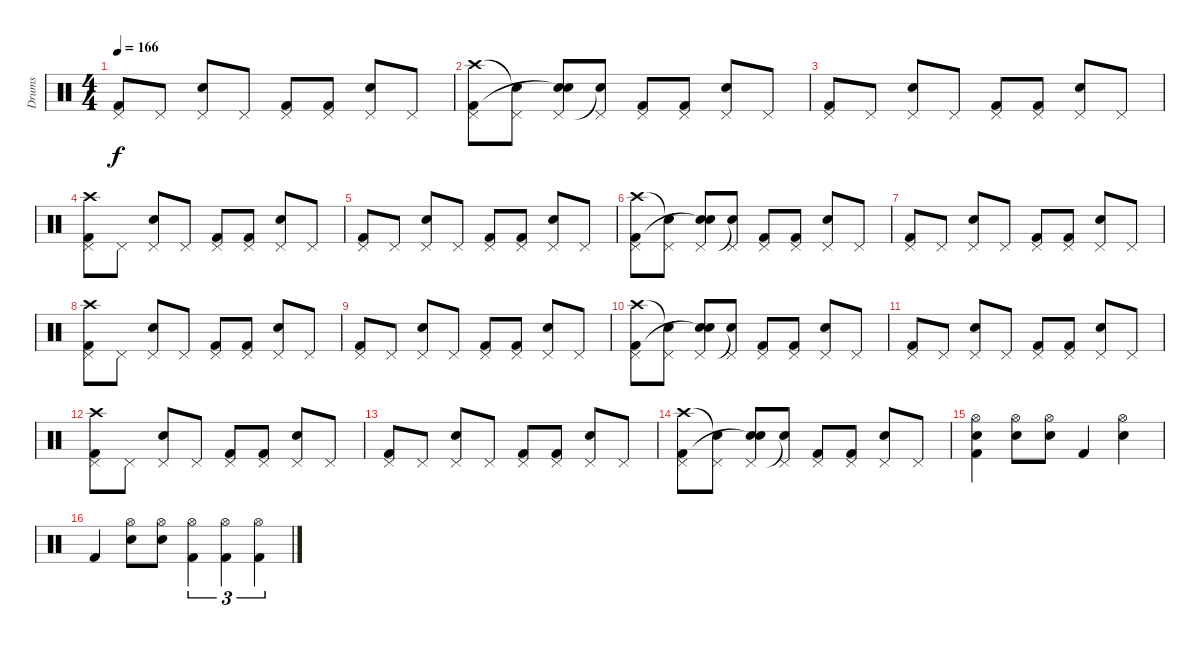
\track ("Drums" "Drums") {instrument percussion}
\staff {score}
\articulation defaults
\ts (4 4)
\tempo 166
\clef neutral
\ks c
("Pedal Hi-Hat (hit)" "Kick (hit) 2").8{dy f} "Pedal Hi-Hat (hit)".8 ("Electric Snare (hit)" "Pedal Hi-Hat (hit)").8 "Pedal Hi-Hat (hit)".8 ("Pedal Hi-Hat (hit)" "Kick (hit) 2").8 ("Pedal Hi-Hat (hit)" "Kick (hit) 2").8 ("Electric Snare (hit)" "Pedal Hi-Hat (hit)").8 "Pedal Hi-Hat (hit)".8 |
("Pedal Hi-Hat (hit)" "Crash high (hit)" "Kick (hit) 2").8 ("Pedal Hi-Hat (hit)" "Snare (hit)"{t}).8 ("Electric Snare (hit)" "Pedal Hi-Hat (hit)" "Snare (hit)"{t}).8 ("Pedal Hi-Hat (hit)" "Snare (hit)"{t}).8 ("Pedal Hi-Hat (hit)" "Kick (hit) 2").8 ("Pedal Hi-Hat (hit)" "Kick (hit) 2").8 ("Electric Snare (hit)" "Pedal Hi-Hat (hit)").8 "Pedal Hi-Hat (hit)".8 |
("Pedal Hi-Hat (hit)" "Kick (hit) 2").8 "Pedal Hi-Hat (hit)".8 ("Electric Snare (hit)" "Pedal Hi-Hat (hit)").8 "Pedal Hi-Hat (hit)".8 ("Pedal Hi-Hat (hit)" "Kick (hit) 2").8 ("Pedal Hi-Hat (hit)" "Kick (hit) 2").8 ("Electric Snare (hit)" "Pedal Hi-Hat (hit)").8 "Pedal Hi-Hat (hit)".8 |
("Pedal Hi-Hat (hit)" "Crash high (hit)" "Kick (hit) 2").8 "Pedal Hi-Hat (hit)".8 ("Electric Snare (hit)" "Pedal Hi-Hat (hit)").8 "Pedal Hi-Hat (hit)".8 ("Pedal Hi-Hat (hit)" "Kick (hit) 2").8 ("Pedal Hi-Hat (hit)" "Kick (hit) 2").8 ("Electric Snare (hit)" "Pedal Hi-Hat (hit)").8 "Pedal Hi-Hat (hit)".8 |
("Pedal Hi-Hat (hit)" "Kick (hit) 2").8 "Pedal Hi-Hat (hit)".8 ("Electric Snare (hit)" "Pedal Hi-Hat (hit)").8 "Pedal Hi-Hat (hit)".8 ("Pedal Hi-Hat (hit)" "Kick (hit) 2").8 ("Pedal Hi-Hat (hit)" "Kick (hit) 2").8 ("Electric Snare (hit)" "Pedal Hi-Hat (hit)").8 "Pedal Hi-Hat (hit)".8 |
("Pedal Hi-Hat (hit)" "Crash high (hit)" "Kick (hit) 2").8 ("Pedal Hi-Hat (hit)" "Snare (hit)"{t}).8 ("Electric Snare (hit)" "Pedal Hi-Hat (hit)" "Snare (hit)"{t}).8 ("Pedal Hi-Hat (hit)" "Snare (hit)"{t}).8 ("Pedal Hi-Hat (hit)" "Kick (hit) 2").8 ("Pedal Hi-Hat (hit)" "Kick (hit) 2").8 ("Electric Snare (hit)" "Pedal Hi-Hat (hit)").8 "Pedal Hi-Hat (hit)".8 |
("Pedal Hi-Hat (hit)" "Kick (hit) 2").8 "Pedal Hi-Hat (hit)".8 ("Electric Snare (hit)" "Pedal Hi-Hat (hit)").8 "Pedal Hi-Hat (hit)".8 ("Pedal Hi-Hat (hit)" "Kick (hit) 2").8 ("Pedal Hi-Hat (hit)" "Kick (hit) 2").8 ("Electric Snare (hit)" "Pedal Hi-Hat (hit)").8 "Pedal Hi-Hat (hit)".8 |
("Pedal Hi-Hat (hit)" "Crash high (hit)" "Kick (hit) 2").8 "Pedal Hi-Hat (hit)".8 ("Electric Snare (hit)" "Pedal Hi-Hat (hit)").8 "Pedal Hi-Hat (hit)".8 ("Pedal Hi-Hat (hit)" "Kick (hit) 2").8 ("Pedal Hi-Hat (hit)" "Kick (hit) 2").8 ("Electric Snare (hit)" "Pedal Hi-Hat (hit)").8 "Pedal Hi-Hat (hit)".8 |
("Pedal Hi-Hat (hit)" "Kick (hit) 2").8 "Pedal Hi-Hat (hit)".8 ("Electric Snare (hit)" "Pedal Hi-Hat (hit)").8 "Pedal Hi-Hat (hit)".8 ("Pedal Hi-Hat (hit)" "Kick (hit) 2").8 ("Pedal Hi-Hat (hit)" "Kick (hit) 2").8 ("Electric Snare (hit)" "Pedal Hi-Hat (hit)").8 "Pedal Hi-Hat (hit)".8 |
("Pedal Hi-Hat (hit)" "Crash high (hit)" "Kick (hit) 2").8 ("Pedal Hi-Hat (hit)" "Snare (hit)"{t}).8 ("Electric Snare (hit)" "Pedal Hi-Hat (hit)" "Snare (hit)"{t}).8 ("Pedal Hi-Hat (hit)" "Snare (hit)"{t}).8 ("Pedal Hi-Hat (hit)" "Kick (hit) 2").8 ("Pedal Hi-Hat (hit)" "Kick (hit) 2").8 ("Electric Snare (hit)" "Pedal Hi-Hat (hit)").8 "Pedal Hi-Hat (hit)".8 |
("Pedal Hi-Hat (hit)" "Kick (hit) 2").8 "Pedal Hi-Hat (hit)".8 ("Electric Snare (hit)" "Pedal Hi-Hat (hit)").8 "Pedal Hi-Hat (hit)".8 ("Pedal Hi-Hat (hit)" "Kick (hit) 2").8 ("Pedal Hi-Hat (hit)" "Kick (hit) 2").8 ("Electric Snare (hit)" "Pedal Hi-Hat (hit)").8 "Pedal Hi-Hat (hit)".8 |
("Pedal Hi-Hat (hit)" "Crash high (hit)" "Kick (hit) 2").8 "Pedal Hi-Hat (hit)".8 ("Electric Snare (hit)" "Pedal Hi-Hat (hit)").8 "Pedal Hi-Hat (hit)".8 ("Pedal Hi-Hat (hit)" "Kick (hit) 2").8 ("Pedal Hi-Hat (hit)" "Kick (hit) 2").8 ("Electric Snare (hit)" "Pedal Hi-Hat (hit)").8 "Pedal Hi-Hat (hit)".8 |
("Pedal Hi-Hat (hit)" "Kick (hit) 2").8 "Pedal Hi-Hat (hit)".8 ("Electric Snare (hit)" "Pedal Hi-Hat (hit)").8 "Pedal Hi-Hat (hit)".8 ("Pedal Hi-Hat (hit)" "Kick (hit) 2").8 ("Pedal Hi-Hat (hit)" "Kick (hit) 2").8 ("Electric Snare (hit)" "Pedal Hi-Hat (hit)").8 "Pedal Hi-Hat (hit)".8 |
("Pedal Hi-Hat (hit)" "Crash high (hit)" "Kick (hit) 2").8 ("Pedal Hi-Hat (hit)" "Snare (hit)"{t}).8 ("Electric Snare (hit)" "Pedal Hi-Hat (hit)" "Snare (hit)"{t}).8 ("Pedal Hi-Hat (hit)" "Snare (hit)"{t}).8 ("Pedal Hi-Hat (hit)" "Kick (hit) 2").8 ("Pedal Hi-Hat (hit)" "Kick (hit) 2").8 ("Electric Snare (hit)" "Pedal Hi-Hat (hit)").8 "Pedal Hi-Hat (hit)".8 |
("Electric Snare (hit)" "Hi-Hat (open)" "Kick (hit) 2").4 ("Electric Snare (hit)" "Hi-Hat (open)").8 ("Electric Snare (hit)" "Hi-Hat (open)").8 "Kick (hit) 2".4 ("Electric Snare (hit)" "Hi-Hat (open)").4 |
"Kick (hit) 2".4 ("Electric Snare (hit)" "Hi-Hat (open)").8 ("Electric Snare (hit)" "Hi-Hat (open)").8 ("Hi-Hat (open)" "Kick (hit) 2").4{tu (3 2)} ("Hi-Hat (open)" "Kick (hit) 2").4{tu (3 2)} ("Hi-Hat (open)" "Kick (hit) 2").4{tu (3 2)}
